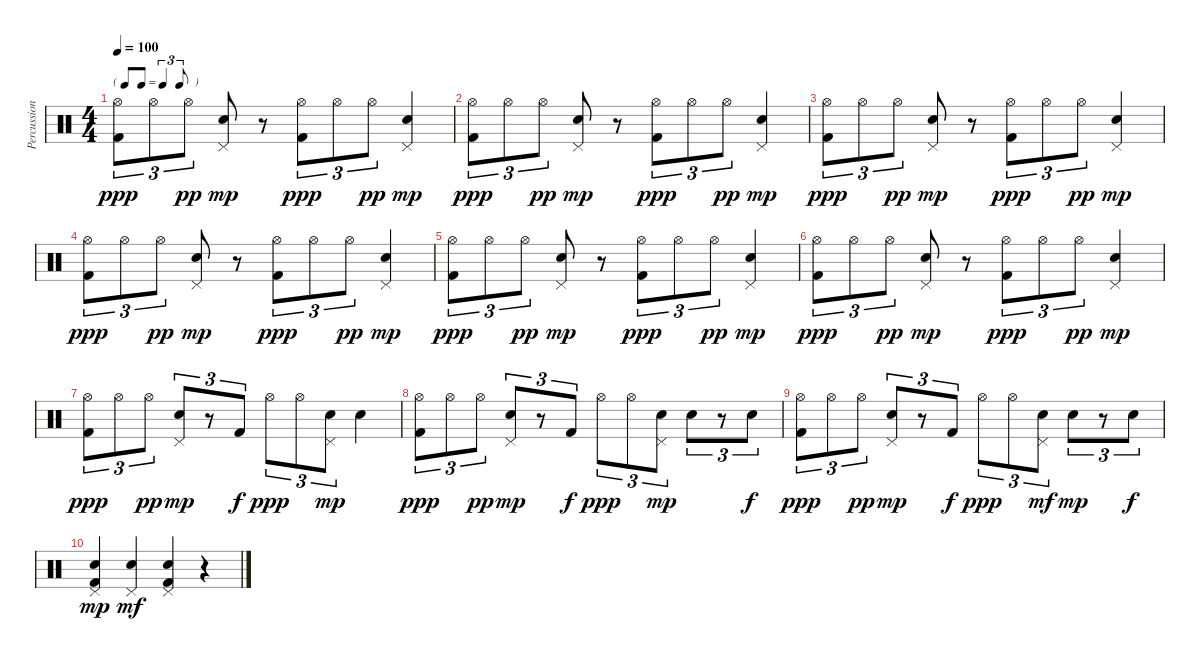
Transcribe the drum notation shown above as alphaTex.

\track ("Percussion" "Percussion") {instrument percussion}
\staff {score}
\articulation defaults
\ts (4 4)
\tf triplet8th
\tempo 100
\clef neutral
\ks c
("Hi-Hat (open)" "Kick (hit) 2").8{tu (3 2) dy ppp} "Hi-Hat (open)".8{tu (3 2)} "Hi-Hat (open)".8{tu (3 2) dy pp} ("Pedal Hi-Hat (hit)" "Electric Snare (hit)").8{dy mp} r.8 ("Hi-Hat (open)" "Kick (hit) 2").8{tu (3 2) dy ppp} "Hi-Hat (open)".8{tu (3 2)} "Hi-Hat (open)".8{tu (3 2) dy pp} ("Pedal Hi-Hat (hit)" "Electric Snare (hit)").4{dy mp} |
("Hi-Hat (open)" "Kick (hit) 2").8{tu (3 2) dy ppp} "Hi-Hat (open)".8{tu (3 2)} "Hi-Hat (open)".8{tu (3 2) dy pp} ("Pedal Hi-Hat (hit)" "Electric Snare (hit)").8{dy mp} r.8 ("Hi-Hat (open)" "Kick (hit) 2").8{tu (3 2) dy ppp} "Hi-Hat (open)".8{tu (3 2)} "Hi-Hat (open)".8{tu (3 2) dy pp} ("Pedal Hi-Hat (hit)" "Electric Snare (hit)").4{dy mp} |
("Hi-Hat (open)" "Kick (hit) 2").8{tu (3 2) dy ppp} "Hi-Hat (open)".8{tu (3 2)} "Hi-Hat (open)".8{tu (3 2) dy pp} ("Pedal Hi-Hat (hit)" "Electric Snare (hit)").8{dy mp} r.8 ("Hi-Hat (open)" "Kick (hit) 2").8{tu (3 2) dy ppp} "Hi-Hat (open)".8{tu (3 2)} "Hi-Hat (open)".8{tu (3 2) dy pp} ("Pedal Hi-Hat (hit)" "Electric Snare (hit)").4{dy mp} |
("Hi-Hat (open)" "Kick (hit) 2").8{tu (3 2) dy ppp} "Hi-Hat (open)".8{tu (3 2)} "Hi-Hat (open)".8{tu (3 2) dy pp} ("Pedal Hi-Hat (hit)" "Electric Snare (hit)").8{dy mp} r.8 ("Hi-Hat (open)" "Kick (hit) 2").8{tu (3 2) dy ppp} "Hi-Hat (open)".8{tu (3 2)} "Hi-Hat (open)".8{tu (3 2) dy pp} ("Pedal Hi-Hat (hit)" "Electric Snare (hit)").4{dy mp} |
("Hi-Hat (open)" "Kick (hit) 2").8{tu (3 2) dy ppp} "Hi-Hat (open)".8{tu (3 2)} "Hi-Hat (open)".8{tu (3 2) dy pp} ("Pedal Hi-Hat (hit)" "Electric Snare (hit)").8{dy mp} r.8 ("Hi-Hat (open)" "Kick (hit) 2").8{tu (3 2) dy ppp} "Hi-Hat (open)".8{tu (3 2)} "Hi-Hat (open)".8{tu (3 2) dy pp} ("Pedal Hi-Hat (hit)" "Electric Snare (hit)").4{dy mp} |
("Hi-Hat (open)" "Kick (hit) 2").8{tu (3 2) dy ppp} "Hi-Hat (open)".8{tu (3 2)} "Hi-Hat (open)".8{tu (3 2) dy pp} ("Pedal Hi-Hat (hit)" "Electric Snare (hit)").8{dy mp} r.8 ("Hi-Hat (open)" "Kick (hit) 2").8{tu (3 2) dy ppp} "Hi-Hat (open)".8{tu (3 2)} "Hi-Hat (open)".8{tu (3 2) dy pp} ("Pedal Hi-Hat (hit)" "Electric Snare (hit)").4{dy mp} |
("Hi-Hat (open)" "Kick (hit) 2").8{tu (3 2) dy ppp} "Hi-Hat (open)".8{tu (3 2)} "Hi-Hat (open)".8{tu (3 2) dy pp} ("Pedal Hi-Hat (hit)" "Electric Snare (hit)").8{tu (3 2) dy mp} r.8{tu (3 2)} "Kick (hit) 2".8{tu (3 2) dy f} "Hi-Hat (open)".8{tu (3 2) dy ppp} "Hi-Hat (open)".8{tu (3 2)} ("Pedal Hi-Hat (hit)" "Electric Snare (hit)").8{tu (3 2) dy mp} "Electric Snare (hit)".4 |
("Hi-Hat (open)" "Kick (hit) 2").8{tu (3 2) dy ppp} "Hi-Hat (open)".8{tu (3 2)} "Hi-Hat (open)".8{tu (3 2) dy pp} ("Pedal Hi-Hat (hit)" "Electric Snare (hit)").8{tu (3 2) dy mp} r.8{tu (3 2)} "Kick (hit) 2".8{tu (3 2) dy f} "Hi-Hat (open)".8{tu (3 2) dy ppp} "Hi-Hat (open)".8{tu (3 2)} ("Pedal Hi-Hat (hit)" "Electric Snare (hit)").8{tu (3 2) dy mp} "Electric Snare (hit)".8{tu (3 2)} r.8{tu (3 2)} "Electric Snare (hit)".8{tu (3 2) dy f} |
("Hi-Hat (open)" "Kick (hit) 2").8{tu (3 2) dy ppp} "Hi-Hat (open)".8{tu (3 2)} "Hi-Hat (open)".8{tu (3 2) dy pp} ("Pedal Hi-Hat (hit)" "Electric Snare (hit)").8{tu (3 2) dy mp} r.8{tu (3 2)} "Kick (hit) 2".8{tu (3 2) dy f} "Hi-Hat (open)".8{tu (3 2) dy ppp} "Hi-Hat (open)".8{tu (3 2)} ("Pedal Hi-Hat (hit)" "Electric Snare (hit)").8{tu (3 2) dy mf} "Electric Snare (hit)".8{tu (3 2) dy mp} r.8{tu (3 2)} "Electric Snare (hit)".8{tu (3 2) dy f} |
("Pedal Hi-Hat (hit)" "Electric Snare (hit)" "Kick (hit) 2").4{dy mp} ("Pedal Hi-Hat (hit)" "Electric Snare (hit)").4{dy mf} ("Pedal Hi-Hat (hit)" "Electric Snare (hit)" "Kick (hit) 2").4 r.4
